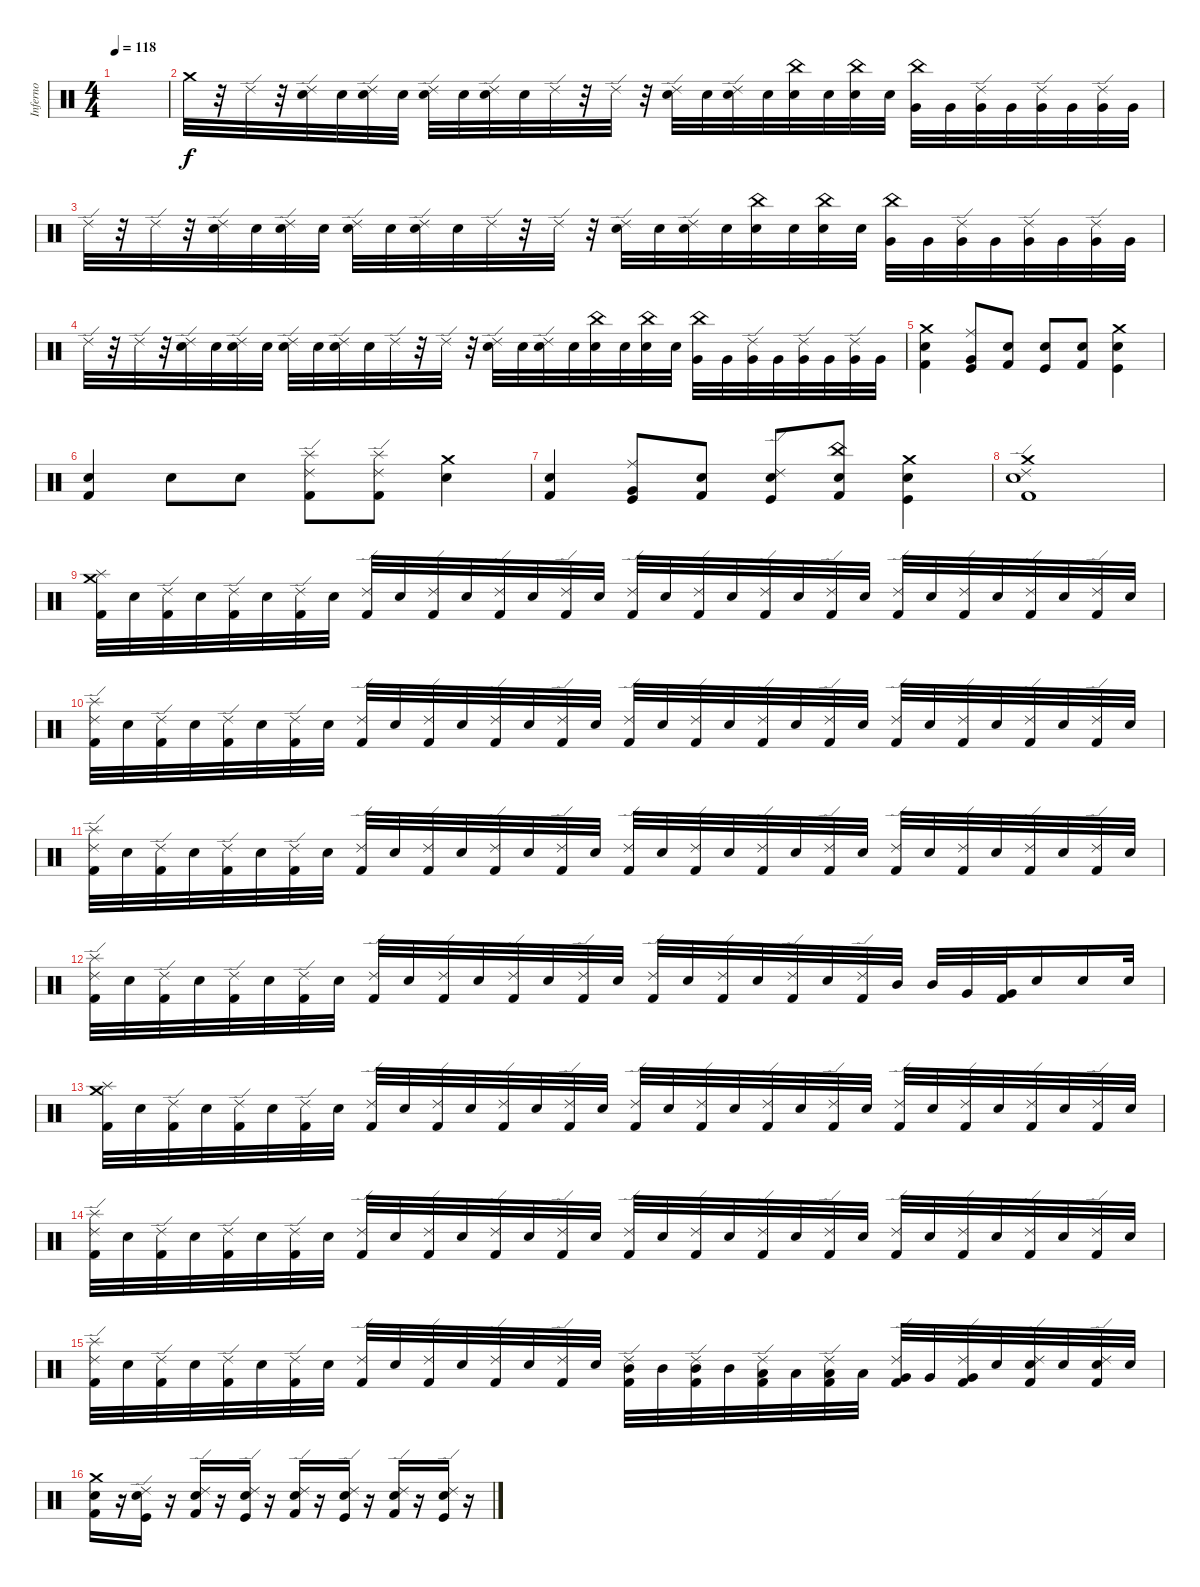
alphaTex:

\track ("Inferno" "Inferno") {instrument percussion}
\staff {score}
\articulation defaults
\ts (4 4)
\tempo 118
\clef neutral
\ks c
|
"Crash medium (hit)".32 r.32 "Ride (edge) 2".32 r.32 ("Ride (edge) 2" "Electric Snare (hit)").32 "Electric Snare (hit)".32 ("Ride (edge) 2" "Electric Snare (hit)").32 "Electric Snare (hit)".32 ("Ride (edge) 2" "Electric Snare (hit)").32 "Electric Snare (hit)".32 ("Ride (edge) 2" "Electric Snare (hit)").32 "Electric Snare (hit)".32 "Ride (edge) 2".32 r.32 "Ride (edge) 2".32 r.32 ("Ride (edge) 2" "Electric Snare (hit)").32 "Electric Snare (hit)".32 ("Ride (edge) 2" "Electric Snare (hit)").32 "Electric Snare (hit)".32 ("China (hit)" "Snare (hit) 2").32 "Snare (hit) 2".32 ("China (hit)" "Snare (hit) 2").32 "Snare (hit) 2".32 ("China (hit)" "Very Low Tom (hit)").32 "Very Low Tom (hit)".32 ("Ride (edge) 2" "Very Low Tom (hit)").32 "Very Low Tom (hit)".32 ("Ride (edge) 2" "Very Low Tom (hit)").32 "Very Low Tom (hit)".32 ("Ride (edge) 2" "Very Low Tom (hit)").32 "Very Low Tom (hit)".32 |
"Ride (edge) 2".32 r.32 "Ride (edge) 2".32 r.32 ("Ride (edge) 2" "Electric Snare (hit)").32 "Electric Snare (hit)".32 ("Ride (edge) 2" "Electric Snare (hit)").32 "Electric Snare (hit)".32 ("Ride (edge) 2" "Electric Snare (hit)").32 "Electric Snare (hit)".32 ("Ride (edge) 2" "Electric Snare (hit)").32 "Electric Snare (hit)".32 "Ride (edge) 2".32 r.32 "Ride (edge) 2".32 r.32 ("Ride (edge) 2" "Electric Snare (hit)").32 "Electric Snare (hit)".32 ("Ride (edge) 2" "Electric Snare (hit)").32 "Electric Snare (hit)".32 ("China (hit)" "Snare (hit) 2").32 "Snare (hit) 2".32 ("China (hit)" "Snare (hit) 2").32 "Snare (hit) 2".32 ("China (hit)" "Very Low Tom (hit)").32 "Very Low Tom (hit)".32 ("Ride (edge) 2" "Very Low Tom (hit)").32 "Very Low Tom (hit)".32 ("Ride (edge) 2" "Very Low Tom (hit)").32 "Very Low Tom (hit)".32 ("Ride (edge) 2" "Very Low Tom (hit)").32 "Very Low Tom (hit)".32 |
"Ride (edge) 2".32 r.32 "Ride (edge) 2".32 r.32 ("Ride (edge) 2" "Electric Snare (hit)").32 "Electric Snare (hit)".32 ("Ride (edge) 2" "Electric Snare (hit)").32 "Electric Snare (hit)".32 ("Ride (edge) 2" "Electric Snare (hit)").32 "Electric Snare (hit)".32 ("Ride (edge) 2" "Electric Snare (hit)").32 "Electric Snare (hit)".32 "Ride (edge) 2".32 r.32 "Ride (edge) 2".32 r.32 ("Ride (edge) 2" "Electric Snare (hit)").32 "Electric Snare (hit)".32 ("Ride (edge) 2" "Electric Snare (hit)").32 "Electric Snare (hit)".32 ("China (hit)" "Snare (hit) 2").32 "Snare (hit) 2".32 ("China (hit)" "Snare (hit) 2").32 "Snare (hit) 2".32 ("China (hit)" "Very Low Tom (hit)").32 "Very Low Tom (hit)".32 ("Ride (edge) 2" "Very Low Tom (hit)").32 "Very Low Tom (hit)".32 ("Ride (edge) 2" "Very Low Tom (hit)").32 "Very Low Tom (hit)".32 ("Ride (edge) 2" "Very Low Tom (hit)").32 "Very Low Tom (hit)".32 |
("Crash medium (hit)" "Electric Snare (hit)" "Kick (hit) 2").4 ("Ride (middle)" "Very Low Tom (hit)" "Kick (hit)").8 ("Electric Snare (hit)" "Kick (hit) 2").8 ("Electric Snare (hit)" "Kick (hit)").8 ("Electric Snare (hit)" "Kick (hit) 2").8 ("Crash medium (hit)" "Electric Snare (hit)" "Kick (hit)").4 |
("Electric Snare (hit)" "Kick (hit) 2").4 "Electric Snare (hit)".8 "Electric Snare (hit)".8 ("Ride (edge) 2" "Splash (hit)" "Kick (hit) 2").8 ("Ride (edge) 2" "Splash (hit)" "Kick (hit) 2").8 ("Crash medium (hit)" "Electric Snare (hit)").4 |
("Electric Snare (hit)" "Kick (hit) 2").4 ("Ride (middle)" "Very Low Tom (hit)" "Kick (hit)").8 ("Electric Snare (hit)" "Kick (hit) 2").8 ("Ride (edge) 2" "Electric Snare (hit)" "Kick (hit)").8 ("China (hit)" "Electric Snare (hit)" "Kick (hit) 2").8 ("Crash medium (hit)" "Electric Snare (hit)" "Kick (hit)").4 |
("Ride (edge) 2" "Crash medium (hit)" "Electric Snare (hit)" "Kick (hit) 2").1 |
("Crash medium (hit)" "Splash (hit)" "Kick (hit) 2").32 "Electric Snare (hit)".32 ("Ride (edge) 2" "Kick (hit) 2").32 "Electric Snare (hit)".32 ("Ride (edge) 2" "Kick (hit) 2").32 "Electric Snare (hit)".32 ("Ride (edge) 2" "Kick (hit) 2").32 "Electric Snare (hit)".32 ("Ride (edge) 2" "Kick (hit) 2").32 "Electric Snare (hit)".32 ("Ride (edge) 2" "Kick (hit) 2").32 "Electric Snare (hit)".32 ("Ride (edge) 2" "Kick (hit) 2").32 "Electric Snare (hit)".32 ("Ride (edge) 2" "Kick (hit) 2").32 "Electric Snare (hit)".32 ("Ride (edge) 2" "Kick (hit) 2").32 "Electric Snare (hit)".32 ("Ride (edge) 2" "Kick (hit) 2").32 "Electric Snare (hit)".32 ("Ride (edge) 2" "Kick (hit) 2").32 "Electric Snare (hit)".32 ("Ride (edge) 2" "Kick (hit) 2").32 "Electric Snare (hit)".32 ("Ride (edge) 2" "Kick (hit) 2").32 "Electric Snare (hit)".32 ("Ride (edge) 2" "Kick (hit) 2").32 "Electric Snare (hit)".32 ("Ride (edge) 2" "Kick (hit) 2").32 "Electric Snare (hit)".32 ("Ride (edge) 2" "Kick (hit) 2").32 "Electric Snare (hit)".32 |
("Ride (edge) 2" "Splash (hit)" "Kick (hit) 2").32 "Electric Snare (hit)".32 ("Ride (edge) 2" "Kick (hit) 2").32 "Electric Snare (hit)".32 ("Ride (edge) 2" "Kick (hit) 2").32 "Electric Snare (hit)".32 ("Ride (edge) 2" "Kick (hit) 2").32 "Electric Snare (hit)".32 ("Ride (edge) 2" "Kick (hit) 2").32 "Electric Snare (hit)".32 ("Ride (edge) 2" "Kick (hit) 2").32 "Electric Snare (hit)".32 ("Ride (edge) 2" "Kick (hit) 2").32 "Electric Snare (hit)".32 ("Ride (edge) 2" "Kick (hit) 2").32 "Electric Snare (hit)".32 ("Ride (edge) 2" "Kick (hit) 2").32 "Electric Snare (hit)".32 ("Ride (edge) 2" "Kick (hit) 2").32 "Electric Snare (hit)".32 ("Ride (edge) 2" "Kick (hit) 2").32 "Electric Snare (hit)".32 ("Ride (edge) 2" "Kick (hit) 2").32 "Electric Snare (hit)".32 ("Ride (edge) 2" "Kick (hit) 2").32 "Electric Snare (hit)".32 ("Ride (edge) 2" "Kick (hit) 2").32 "Electric Snare (hit)".32 ("Ride (edge) 2" "Kick (hit) 2").32 "Electric Snare (hit)".32 ("Ride (edge) 2" "Kick (hit) 2").32 "Electric Snare (hit)".32 |
("Ride (edge) 2" "Splash (hit)" "Kick (hit) 2").32 "Electric Snare (hit)".32 ("Ride (edge) 2" "Kick (hit) 2").32 "Electric Snare (hit)".32 ("Ride (edge) 2" "Kick (hit) 2").32 "Electric Snare (hit)".32 ("Ride (edge) 2" "Kick (hit) 2").32 "Electric Snare (hit)".32 ("Ride (edge) 2" "Kick (hit) 2").32 "Electric Snare (hit)".32 ("Ride (edge) 2" "Kick (hit) 2").32 "Electric Snare (hit)".32 ("Ride (edge) 2" "Kick (hit) 2").32 "Electric Snare (hit)".32 ("Ride (edge) 2" "Kick (hit) 2").32 "Electric Snare (hit)".32 ("Ride (edge) 2" "Kick (hit) 2").32 "Electric Snare (hit)".32 ("Ride (edge) 2" "Kick (hit) 2").32 "Electric Snare (hit)".32 ("Ride (edge) 2" "Kick (hit) 2").32 "Electric Snare (hit)".32 ("Ride (edge) 2" "Kick (hit) 2").32 "Electric Snare (hit)".32 ("Ride (edge) 2" "Kick (hit) 2").32 "Electric Snare (hit)".32 ("Ride (edge) 2" "Kick (hit) 2").32 "Electric Snare (hit)".32 ("Ride (edge) 2" "Kick (hit) 2").32 "Electric Snare (hit)".32 ("Ride (edge) 2" "Kick (hit) 2").32 "Electric Snare (hit)".32 |
("Ride (edge) 2" "Splash (hit)" "Kick (hit) 2").32 "Electric Snare (hit)".32 ("Ride (edge) 2" "Kick (hit) 2").32 "Electric Snare (hit)".32 ("Ride (edge) 2" "Kick (hit) 2").32 "Electric Snare (hit)".32 ("Ride (edge) 2" "Kick (hit) 2").32 "Electric Snare (hit)".32 ("Ride (edge) 2" "Kick (hit) 2").32 "Electric Snare (hit)".32 ("Ride (edge) 2" "Kick (hit) 2").32 "Electric Snare (hit)".32 ("Ride (edge) 2" "Kick (hit) 2").32 "Electric Snare (hit)".32 ("Ride (edge) 2" "Kick (hit) 2").32 "Electric Snare (hit)".32 ("Ride (edge) 2" "Kick (hit) 2").32 "Electric Snare (hit)".32 ("Ride (edge) 2" "Kick (hit) 2").32 "Electric Snare (hit)".32 ("Ride (edge) 2" "Kick (hit) 2").32 "Electric Snare (hit)".32 ("Ride (edge) 2" "Kick (hit) 2").32 "Mid Tom (hit)".32 "Mid Tom (hit)".32 "Very Low Tom (hit)".32 ("Very Low Tom (hit)" "Kick (hit) 2").32 "Electric Snare (hit)".16 "Electric Snare (hit)".16 "Electric Snare (hit)".32 |
("Crash medium (hit)" "Splash (hit)" "Kick (hit) 2").32 "Electric Snare (hit)".32 ("Ride (edge) 2" "Kick (hit) 2").32 "Electric Snare (hit)".32 ("Ride (edge) 2" "Kick (hit) 2").32 "Electric Snare (hit)".32 ("Ride (edge) 2" "Kick (hit) 2").32 "Electric Snare (hit)".32 ("Ride (edge) 2" "Kick (hit) 2").32 "Electric Snare (hit)".32 ("Ride (edge) 2" "Kick (hit) 2").32 "Electric Snare (hit)".32 ("Ride (edge) 2" "Kick (hit) 2").32 "Electric Snare (hit)".32 ("Ride (edge) 2" "Kick (hit) 2").32 "Electric Snare (hit)".32 ("Ride (edge) 2" "Kick (hit) 2").32 "Electric Snare (hit)".32 ("Ride (edge) 2" "Kick (hit) 2").32 "Electric Snare (hit)".32 ("Ride (edge) 2" "Kick (hit) 2").32 "Electric Snare (hit)".32 ("Ride (edge) 2" "Kick (hit) 2").32 "Electric Snare (hit)".32 ("Ride (edge) 2" "Kick (hit) 2").32 "Electric Snare (hit)".32 ("Ride (edge) 2" "Kick (hit) 2").32 "Electric Snare (hit)".32 ("Ride (edge) 2" "Kick (hit) 2").32 "Electric Snare (hit)".32 ("Ride (edge) 2" "Kick (hit) 2").32 "Electric Snare (hit)".32 |
("Ride (edge) 2" "Splash (hit)" "Kick (hit) 2").32 "Electric Snare (hit)".32 ("Ride (edge) 2" "Kick (hit) 2").32 "Electric Snare (hit)".32 ("Ride (edge) 2" "Kick (hit) 2").32 "Electric Snare (hit)".32 ("Ride (edge) 2" "Kick (hit) 2").32 "Electric Snare (hit)".32 ("Ride (edge) 2" "Kick (hit) 2").32 "Electric Snare (hit)".32 ("Ride (edge) 2" "Kick (hit) 2").32 "Electric Snare (hit)".32 ("Ride (edge) 2" "Kick (hit) 2").32 "Electric Snare (hit)".32 ("Ride (edge) 2" "Kick (hit) 2").32 "Electric Snare (hit)".32 ("Ride (edge) 2" "Kick (hit) 2").32 "Electric Snare (hit)".32 ("Ride (edge) 2" "Kick (hit) 2").32 "Electric Snare (hit)".32 ("Ride (edge) 2" "Kick (hit) 2").32 "Electric Snare (hit)".32 ("Ride (edge) 2" "Kick (hit) 2").32 "Electric Snare (hit)".32 ("Ride (edge) 2" "Kick (hit) 2").32 "Electric Snare (hit)".32 ("Ride (edge) 2" "Kick (hit) 2").32 "Electric Snare (hit)".32 ("Ride (edge) 2" "Kick (hit) 2").32 "Electric Snare (hit)".32 ("Ride (edge) 2" "Kick (hit) 2").32 "Electric Snare (hit)".32 |
("Ride (edge) 2" "Splash (hit)" "Kick (hit) 2").32 "Electric Snare (hit)".32 ("Ride (edge) 2" "Kick (hit) 2").32 "Electric Snare (hit)".32 ("Ride (edge) 2" "Kick (hit) 2").32 "Electric Snare (hit)".32 ("Ride (edge) 2" "Kick (hit) 2").32 "Electric Snare (hit)".32 ("Ride (edge) 2" "Kick (hit) 2").32 "Electric Snare (hit)".32 ("Ride (edge) 2" "Kick (hit) 2").32 "Electric Snare (hit)".32 ("Ride (edge) 2" "Kick (hit) 2").32 "Electric Snare (hit)".32 ("Ride (edge) 2" "Kick (hit) 2").32 "Electric Snare (hit)".32 ("Ride (edge) 2" "Mid Tom (hit)" "Kick (hit) 2").32 "Mid Tom (hit)".32 ("Ride (edge) 2" "Mid Tom (hit)" "Kick (hit) 2").32 "Mid Tom (hit)".32 ("Ride (edge) 2" "Low Tom (hit)" "Kick (hit) 2").32 "Low Tom (hit)".32 ("Ride (edge) 2" "Low Tom (hit)" "Kick (hit) 2").32 "Low Tom (hit)".32 ("Ride (edge) 2" "Very Low Tom (hit)" "Kick (hit) 2").32 "Very Low Tom (hit)".32 ("Ride (edge) 2" "Very Low Tom (hit)" "Kick (hit) 2").32 "Electric Snare (hit)".32 ("Ride (edge) 2" "Electric Snare (hit)" "Kick (hit) 2").32 "Electric Snare (hit)".32 ("Ride (edge) 2" "Electric Snare (hit)" "Kick (hit) 2").32 "Electric Snare (hit)".32 |
("Crash medium (hit)" "Electric Snare (hit)" "Kick (hit) 2").16 r.16 ("Ride (edge) 2" "Electric Snare (hit)" "Kick (hit)").16 r.16 ("Ride (edge) 2" "Electric Snare (hit)" "Kick (hit) 2").16 r.16 ("Ride (edge) 2" "Electric Snare (hit)" "Kick (hit)").16 r.16 ("Ride (edge) 2" "Electric Snare (hit)" "Kick (hit) 2").16 r.16 ("Ride (edge) 2" "Electric Snare (hit)" "Kick (hit)").16 r.16 ("Ride (edge) 2" "Electric Snare (hit)" "Kick (hit) 2").16 r.16 ("Ride (edge) 2" "Electric Snare (hit)" "Kick (hit)").16 r.16
